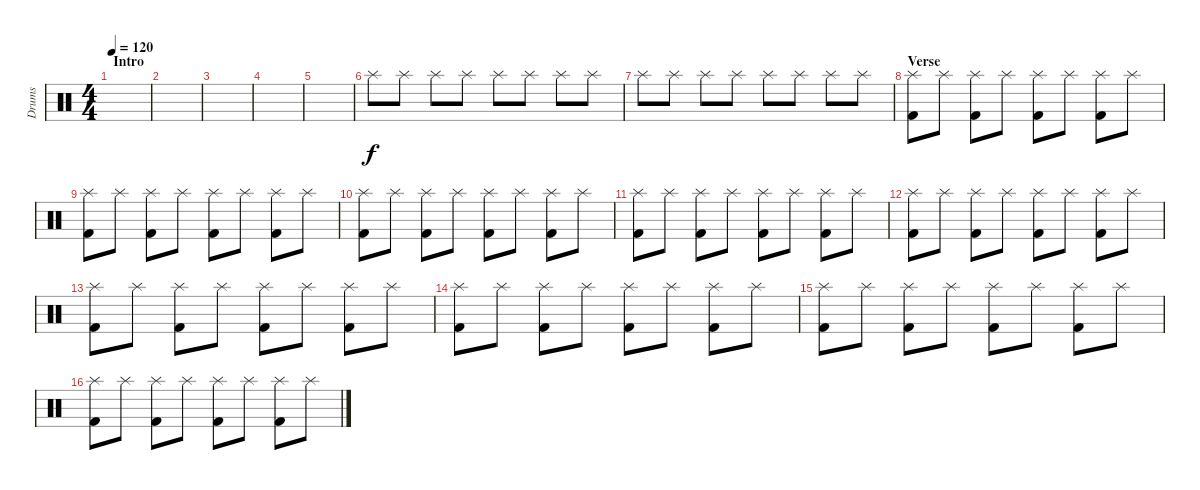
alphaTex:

\track ("Drums" "Drums") {instrument percussion}
\staff {score}
\articulation defaults
\ts (4 4)
\section ("" "Intro")
\tempo 120
\clef neutral
\ks c
|
|
|
|
|
"Splash (hit)".8 "Splash (hit)".8 "Splash (hit)".8 "Splash (hit)".8 "Splash (hit)".8 "Splash (hit)".8 "Splash (hit)".8 "Splash (hit)".8 |
"Splash (hit)".8 "Splash (hit)".8 "Splash (hit)".8 "Splash (hit)".8 "Splash (hit)".8 "Splash (hit)".8 "Splash (hit)".8 "Splash (hit)".8 |
\section ("" "Verse")
("Splash (hit)" "Kick (hit) 2").8 "Splash (hit)".8 ("Splash (hit)" "Kick (hit) 2").8 "Splash (hit)".8 ("Splash (hit)" "Kick (hit) 2").8 "Splash (hit)".8 ("Splash (hit)" "Kick (hit) 2").8 "Splash (hit)".8 |
("Splash (hit)" "Kick (hit) 2").8 "Splash (hit)".8 ("Splash (hit)" "Kick (hit) 2").8 "Splash (hit)".8 ("Splash (hit)" "Kick (hit) 2").8 "Splash (hit)".8 ("Splash (hit)" "Kick (hit) 2").8 "Splash (hit)".8 |
("Splash (hit)" "Kick (hit) 2").8 "Splash (hit)".8 ("Splash (hit)" "Kick (hit) 2").8 "Splash (hit)".8 ("Splash (hit)" "Kick (hit) 2").8 "Splash (hit)".8 ("Splash (hit)" "Kick (hit) 2").8 "Splash (hit)".8 |
("Splash (hit)" "Kick (hit) 2").8 "Splash (hit)".8 ("Splash (hit)" "Kick (hit) 2").8 "Splash (hit)".8 ("Splash (hit)" "Kick (hit) 2").8 "Splash (hit)".8 ("Splash (hit)" "Kick (hit) 2").8 "Splash (hit)".8 |
("Splash (hit)" "Kick (hit) 2").8 "Splash (hit)".8 ("Splash (hit)" "Kick (hit) 2").8 "Splash (hit)".8 ("Splash (hit)" "Kick (hit) 2").8 "Splash (hit)".8 ("Splash (hit)" "Kick (hit) 2").8 "Splash (hit)".8 |
("Splash (hit)" "Kick (hit) 2").8 "Splash (hit)".8 ("Splash (hit)" "Kick (hit) 2").8 "Splash (hit)".8 ("Splash (hit)" "Kick (hit) 2").8 "Splash (hit)".8 ("Splash (hit)" "Kick (hit) 2").8 "Splash (hit)".8 |
("Splash (hit)" "Kick (hit) 2").8 "Splash (hit)".8 ("Splash (hit)" "Kick (hit) 2").8 "Splash (hit)".8 ("Splash (hit)" "Kick (hit) 2").8 "Splash (hit)".8 ("Splash (hit)" "Kick (hit) 2").8 "Splash (hit)".8 |
("Splash (hit)" "Kick (hit) 2").8 "Splash (hit)".8 ("Splash (hit)" "Kick (hit) 2").8 "Splash (hit)".8 ("Splash (hit)" "Kick (hit) 2").8 "Splash (hit)".8 ("Splash (hit)" "Kick (hit) 2").8 "Splash (hit)".8 |
("Splash (hit)" "Kick (hit) 2").8 "Splash (hit)".8 ("Splash (hit)" "Kick (hit) 2").8 "Splash (hit)".8 ("Splash (hit)" "Kick (hit) 2").8 "Splash (hit)".8 ("Splash (hit)" "Kick (hit) 2").8 "Splash (hit)".8
